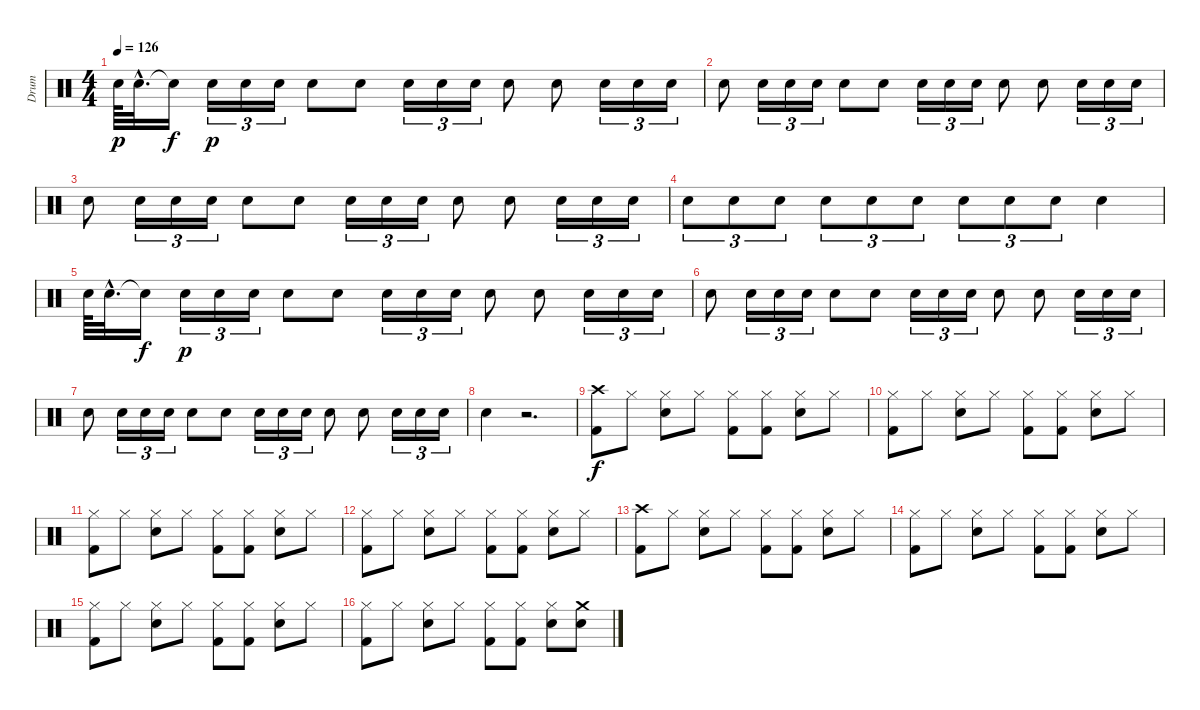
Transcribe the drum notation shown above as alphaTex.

\track ("Drum" "Drum") {instrument percussion}
\staff {score}
\articulation defaults
\ts (4 4)
\tempo 126
\clef neutral
\ks c "Snare (hit) 2".64{dy p} "Snare (hit) 2"{hac}.32{d} "Snare (hit)"{t}.16{dy f} "Snare (hit) 2".16{tu (3 2) dy p} "Snare (hit) 2".16{tu (3 2)} "Snare (hit) 2".16{tu (3 2)} "Snare (hit) 2".8 "Snare (hit) 2".8 "Snare (hit) 2".16{tu (3 2)} "Snare (hit) 2".16{tu (3 2)} "Snare (hit) 2".16{tu (3 2)} "Snare (hit) 2".8 "Snare (hit) 2".8 "Snare (hit) 2".16{tu (3 2)} "Snare (hit) 2".16{tu (3 2)} "Snare (hit) 2".16{tu (3 2)}
|
"Snare (hit) 2".8 "Snare (hit) 2".16{tu (3 2)} "Snare (hit) 2".16{tu (3 2)} "Snare (hit) 2".16{tu (3 2)} "Snare (hit) 2".8 "Snare (hit) 2".8 "Snare (hit) 2".16{tu (3 2)} "Snare (hit) 2".16{tu (3 2)} "Snare (hit) 2".16{tu (3 2)} "Snare (hit) 2".8 "Snare (hit) 2".8 "Snare (hit) 2".16{tu (3 2)} "Snare (hit) 2".16{tu (3 2)} "Snare (hit) 2".16{tu (3 2)} |
"Snare (hit) 2".8 "Snare (hit) 2".16{tu (3 2)} "Snare (hit) 2".16{tu (3 2)} "Snare (hit) 2".16{tu (3 2)} "Snare (hit) 2".8 "Snare (hit) 2".8 "Snare (hit) 2".16{tu (3 2)} "Snare (hit) 2".16{tu (3 2)} "Snare (hit) 2".16{tu (3 2)} "Snare (hit) 2".8 "Snare (hit) 2".8 "Snare (hit) 2".16{tu (3 2)} "Snare (hit) 2".16{tu (3 2)} "Snare (hit) 2".16{tu (3 2)} |
"Snare (hit) 2".8{tu (3 2)} "Snare (hit) 2".8{tu (3 2)} "Snare (hit) 2".8{tu (3 2)} "Snare (hit) 2".8{tu (3 2)} "Snare (hit) 2".8{tu (3 2)} "Snare (hit) 2".8{tu (3 2)} "Snare (hit) 2".8{tu (3 2)} "Snare (hit) 2".8{tu (3 2)} "Snare (hit) 2".8{tu (3 2)} "Snare (hit) 2".4 |
"Snare (hit) 2".64 "Snare (hit) 2"{hac}.32{d} "Snare (hit)"{t}.16{dy f} "Snare (hit) 2".16{tu (3 2) dy p} "Snare (hit) 2".16{tu (3 2)} "Snare (hit) 2".16{tu (3 2)} "Snare (hit) 2".8 "Snare (hit) 2".8 "Snare (hit) 2".16{tu (3 2)} "Snare (hit) 2".16{tu (3 2)} "Snare (hit) 2".16{tu (3 2)} "Snare (hit) 2".8 "Snare (hit) 2".8 "Snare (hit) 2".16{tu (3 2)} "Snare (hit) 2".16{tu (3 2)} "Snare (hit) 2".16{tu (3 2)} |
"Snare (hit) 2".8 "Snare (hit) 2".16{tu (3 2)} "Snare (hit) 2".16{tu (3 2)} "Snare (hit) 2".16{tu (3 2)} "Snare (hit) 2".8 "Snare (hit) 2".8 "Snare (hit) 2".16{tu (3 2)} "Snare (hit) 2".16{tu (3 2)} "Snare (hit) 2".16{tu (3 2)} "Snare (hit) 2".8 "Snare (hit) 2".8 "Snare (hit) 2".16{tu (3 2)} "Snare (hit) 2".16{tu (3 2)} "Snare (hit) 2".16{tu (3 2)} |
"Snare (hit) 2".8 "Snare (hit) 2".16{tu (3 2)} "Snare (hit) 2".16{tu (3 2)} "Snare (hit) 2".16{tu (3 2)} "Snare (hit) 2".8 "Snare (hit) 2".8 "Snare (hit) 2".16{tu (3 2)} "Snare (hit) 2".16{tu (3 2)} "Snare (hit) 2".16{tu (3 2)} "Snare (hit) 2".8 "Snare (hit) 2".8 "Snare (hit) 2".16{tu (3 2)} "Snare (hit) 2".16{tu (3 2)} "Snare (hit) 2".16{tu (3 2)} |
"Snare (hit) 2".4 r.2{d} |
("Crash high (hit)" "Kick (hit) 2").8{dy f} "Hi-Hat (closed)".8 ("Hi-Hat (closed)" "Snare (hit) 2").8 "Hi-Hat (closed)".8 ("Hi-Hat (closed)" "Kick (hit) 2").8 ("Hi-Hat (closed)" "Kick (hit) 2").8 ("Hi-Hat (closed)" "Snare (hit) 2").8 "Hi-Hat (closed)".8 |
("Hi-Hat (closed)" "Kick (hit) 2").8 "Hi-Hat (closed)".8 ("Hi-Hat (closed)" "Snare (hit) 2").8 "Hi-Hat (closed)".8 ("Hi-Hat (closed)" "Kick (hit) 2").8 ("Hi-Hat (closed)" "Kick (hit) 2").8 ("Hi-Hat (closed)" "Snare (hit) 2").8 "Hi-Hat (closed)".8 |
("Hi-Hat (closed)" "Kick (hit) 2").8 "Hi-Hat (closed)".8 ("Hi-Hat (closed)" "Snare (hit) 2").8 "Hi-Hat (closed)".8 ("Hi-Hat (closed)" "Kick (hit) 2").8 ("Hi-Hat (closed)" "Kick (hit) 2").8 ("Hi-Hat (closed)" "Snare (hit) 2").8 "Hi-Hat (closed)".8 |
("Hi-Hat (closed)" "Kick (hit) 2").8 "Hi-Hat (closed)".8 ("Hi-Hat (closed)" "Snare (hit) 2").8 "Hi-Hat (closed)".8 ("Hi-Hat (closed)" "Kick (hit) 2").8 ("Hi-Hat (closed)" "Kick (hit) 2").8 ("Hi-Hat (closed)" "Snare (hit) 2").8 "Hi-Hat (closed)".8 |
("Crash high (hit)" "Kick (hit) 2").8 "Hi-Hat (closed)".8 ("Hi-Hat (closed)" "Snare (hit) 2").8 "Hi-Hat (closed)".8 ("Hi-Hat (closed)" "Kick (hit) 2").8 ("Hi-Hat (closed)" "Kick (hit) 2").8 ("Hi-Hat (closed)" "Snare (hit) 2").8 "Hi-Hat (closed)".8 |
("Hi-Hat (closed)" "Kick (hit) 2").8 "Hi-Hat (closed)".8 ("Hi-Hat (closed)" "Snare (hit) 2").8 "Hi-Hat (closed)".8 ("Hi-Hat (closed)" "Kick (hit) 2").8 ("Hi-Hat (closed)" "Kick (hit) 2").8 ("Hi-Hat (closed)" "Snare (hit) 2").8 "Hi-Hat (closed)".8 |
("Hi-Hat (closed)" "Kick (hit) 2").8 "Hi-Hat (closed)".8 ("Hi-Hat (closed)" "Snare (hit) 2").8 "Hi-Hat (closed)".8 ("Hi-Hat (closed)" "Kick (hit) 2").8 ("Hi-Hat (closed)" "Kick (hit) 2").8 ("Hi-Hat (closed)" "Snare (hit) 2").8 "Hi-Hat (closed)".8 |
("Hi-Hat (closed)" "Kick (hit) 2").8 "Hi-Hat (closed)".8 ("Hi-Hat (closed)" "Snare (hit) 2").8 "Hi-Hat (closed)".8 ("Hi-Hat (closed)" "Kick (hit) 2").8 ("Hi-Hat (closed)" "Kick (hit) 2").8 ("Hi-Hat (closed)" "Snare (hit) 2").8 ("Crash medium (hit)" "Snare (hit) 2").8
